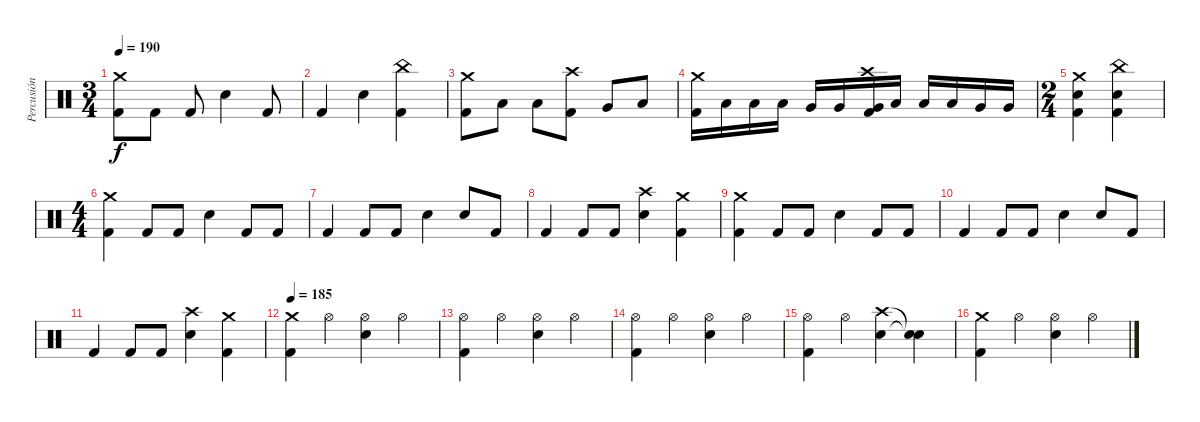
\track ("Percusión" "Percusión") {instrument percussion}
\staff {score}
\articulation defaults
\ts (3 4)
\tempo 190
\clef neutral
\ks c
("Crash medium (hit)" "Kick (hit) 2").8{dy f} "Kick (hit) 2".8 "Kick (hit) 2".8 "Electric Snare (hit)".4 "Kick (hit) 2".8 |
"Kick (hit) 2".4 "Electric Snare (hit)".4 ("China (hit)" "Kick (hit) 2").4 |
("Crash medium (hit)" "Kick (hit) 2").8 "Low Tom (hit)".8 "Low Tom (hit)".8 ("Crash high (hit)" "Kick (hit) 2").8 "Very Low Tom (hit)".8 "Low Floor Tom (hit)".8 |
("Crash medium (hit)" "Kick (hit) 2").16 "Low Tom (hit)".16 "Low Tom (hit)".16 "Low Tom (hit)".16 "Very Low Tom (hit)".16 "Very Low Tom (hit)".16 ("Crash high (hit)" "Very Low Tom (hit)" "Kick (hit) 2").16 "Low Floor Tom (hit)".16 "Low Floor Tom (hit)".16 "Low Floor Tom (hit)".16 "Very Low Tom (hit)".16 "Very Low Tom (hit)".16 |
\ts (2 4)
("Crash medium (hit)" "Electric Snare (hit)" "Kick (hit) 2").4 ("China (hit)" "Electric Snare (hit)" "Kick (hit) 2").4 |
\ts (4 4)
("Crash medium (hit)" "Kick (hit) 2").4 "Kick (hit) 2".8 "Kick (hit) 2".8 "Electric Snare (hit)".4 "Kick (hit) 2".8 "Kick (hit) 2".8 |
"Kick (hit) 2".4 "Kick (hit) 2".8 "Kick (hit) 2".8 "Electric Snare (hit)".4 "Electric Snare (hit)".8 "Kick (hit) 2".8 |
"Kick (hit) 2".4 "Kick (hit) 2".8 "Kick (hit) 2".8 ("Crash high (hit)" "Electric Snare (hit)").4 ("Crash medium (hit)" "Kick (hit) 2").4 |
("Crash medium (hit)" "Kick (hit) 2").4 "Kick (hit) 2".8 "Kick (hit) 2".8 "Electric Snare (hit)".4 "Kick (hit) 2".8 "Kick (hit) 2".8 |
"Kick (hit) 2".4 "Kick (hit) 2".8 "Kick (hit) 2".8 "Electric Snare (hit)".4 "Electric Snare (hit)".8 "Kick (hit) 2".8 |
"Kick (hit) 2".4 "Kick (hit) 2".8 "Kick (hit) 2".8 ("Crash high (hit)" "Electric Snare (hit)").4 ("Crash medium (hit)" "Kick (hit) 2").4 |
\tempo 185
("Crash medium (hit)" "Kick (hit) 2").4 "Hi-Hat (open)".4 ("Hi-Hat (open)" "Electric Snare (hit)").4 "Hi-Hat (open)".4 |
("Hi-Hat (open)" "Kick (hit) 2").4 "Hi-Hat (open)".4 ("Hi-Hat (open)" "Electric Snare (hit)").4 "Hi-Hat (open)".4 |
("Hi-Hat (open)" "Kick (hit) 2").4 "Hi-Hat (open)".4 ("Hi-Hat (open)" "Electric Snare (hit)").4 "Hi-Hat (open)".4 |
("Hi-Hat (open)" "Kick (hit) 2").4 "Hi-Hat (open)".4 ("Crash high (hit)" "Electric Snare (hit)").4 ("Snare (hit)"{t} "Snare (hit)"{t}).4 |
("Crash medium (hit)" "Kick (hit) 2").4 "Hi-Hat (open)".4 ("Hi-Hat (open)" "Electric Snare (hit)").4 "Hi-Hat (open)".4
